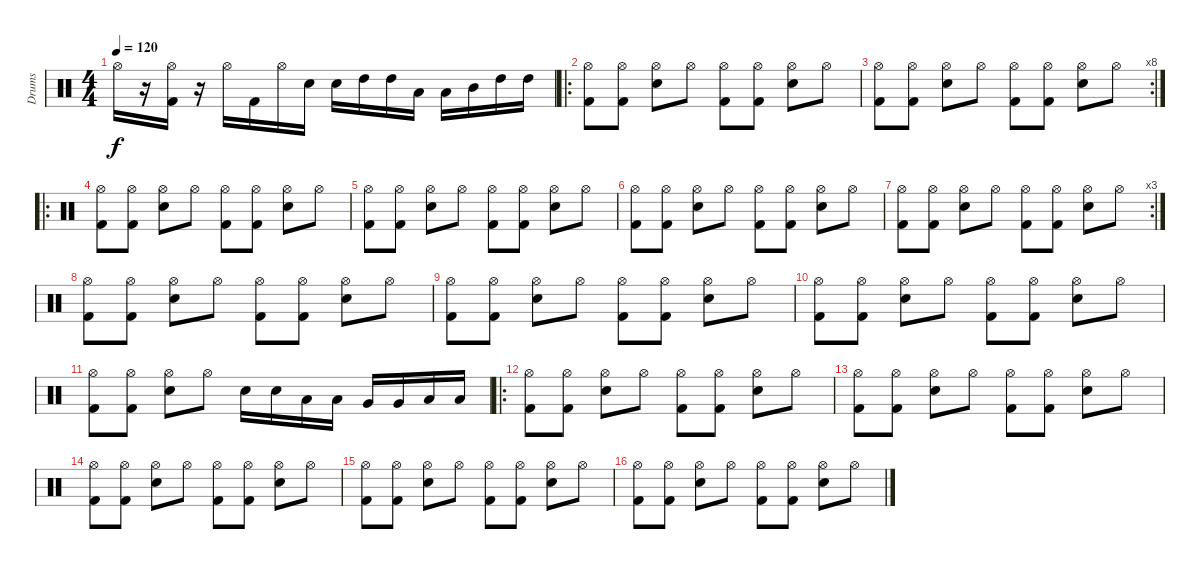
\track ("Drums" "Drums") {instrument percussion}
\staff {score}
\articulation defaults
\ts (4 4)
\tempo 120
\clef neutral
\ks c "Hi-Hat (open)".16{dy f}
r.16 ("Hi-Hat (open)" "Kick (hit) 2").16 r.16 "Hi-Hat (open)".16 "Kick (hit) 2".16 "Hi-Hat (open)".16 "Snare (hit) 2".16 "Snare (hit) 2".16 "High Tom (hit)".16 "High Tom (hit)".16 "Low Tom (hit)".16 "Low Tom (hit)".16 "Mid Tom (hit)".16 "High Tom (hit)".16 "High Tom (hit)".16 |
\ro
("Hi-Hat (open)" "Kick (hit) 2").8 ("Hi-Hat (open)" "Kick (hit) 2").8 ("Hi-Hat (open)" "Snare (hit) 2").8 "Hi-Hat (open)".8 ("Hi-Hat (open)" "Kick (hit) 2").8 ("Hi-Hat (open)" "Kick (hit) 2").8 ("Hi-Hat (open)" "Snare (hit) 2").8 "Hi-Hat (open)".8 |
\rc 8
("Hi-Hat (open)" "Kick (hit) 2").8 ("Hi-Hat (open)" "Kick (hit) 2").8 ("Hi-Hat (open)" "Snare (hit) 2").8 "Hi-Hat (open)".8 ("Hi-Hat (open)" "Kick (hit) 2").8 ("Hi-Hat (open)" "Kick (hit) 2").8 ("Hi-Hat (open)" "Snare (hit) 2").8 "Hi-Hat (open)".8 |
\ro
("Hi-Hat (open)" "Kick (hit) 2").8 ("Hi-Hat (open)" "Kick (hit) 2").8 ("Hi-Hat (open)" "Snare (hit) 2").8 "Hi-Hat (open)".8 ("Hi-Hat (open)" "Kick (hit) 2").8 ("Hi-Hat (open)" "Kick (hit) 2").8 ("Hi-Hat (open)" "Snare (hit) 2").8 "Hi-Hat (open)".8 |
("Hi-Hat (open)" "Kick (hit) 2").8 ("Hi-Hat (open)" "Kick (hit) 2").8 ("Hi-Hat (open)" "Snare (hit) 2").8 "Hi-Hat (open)".8 ("Hi-Hat (open)" "Kick (hit) 2").8 ("Hi-Hat (open)" "Kick (hit) 2").8 ("Hi-Hat (open)" "Snare (hit) 2").8 "Hi-Hat (open)".8 |
("Hi-Hat (open)" "Kick (hit) 2").8 ("Hi-Hat (open)" "Kick (hit) 2").8 ("Hi-Hat (open)" "Snare (hit) 2").8 "Hi-Hat (open)".8 ("Hi-Hat (open)" "Kick (hit) 2").8 ("Hi-Hat (open)" "Kick (hit) 2").8 ("Hi-Hat (open)" "Snare (hit) 2").8 "Hi-Hat (open)".8 |
\rc 3
("Hi-Hat (open)" "Kick (hit) 2").8 ("Hi-Hat (open)" "Kick (hit) 2").8 ("Hi-Hat (open)" "Snare (hit) 2").8 "Hi-Hat (open)".8 ("Hi-Hat (open)" "Kick (hit) 2").8 ("Hi-Hat (open)" "Kick (hit) 2").8 ("Hi-Hat (open)" "Snare (hit) 2").8 "Hi-Hat (open)".8 |
("Hi-Hat (open)" "Kick (hit) 2").8 ("Hi-Hat (open)" "Kick (hit) 2").8 ("Hi-Hat (open)" "Snare (hit) 2").8 "Hi-Hat (open)".8 ("Hi-Hat (open)" "Kick (hit) 2").8 ("Hi-Hat (open)" "Kick (hit) 2").8 ("Hi-Hat (open)" "Snare (hit) 2").8 "Hi-Hat (open)".8 |
("Hi-Hat (open)" "Kick (hit) 2").8 ("Hi-Hat (open)" "Kick (hit) 2").8 ("Hi-Hat (open)" "Snare (hit) 2").8 "Hi-Hat (open)".8 ("Hi-Hat (open)" "Kick (hit) 2").8 ("Hi-Hat (open)" "Kick (hit) 2").8 ("Hi-Hat (open)" "Snare (hit) 2").8 "Hi-Hat (open)".8 |
("Hi-Hat (open)" "Kick (hit) 2").8 ("Hi-Hat (open)" "Kick (hit) 2").8 ("Hi-Hat (open)" "Snare (hit) 2").8 "Hi-Hat (open)".8 ("Hi-Hat (open)" "Kick (hit) 2").8 ("Hi-Hat (open)" "Kick (hit) 2").8 ("Hi-Hat (open)" "Snare (hit) 2").8 "Hi-Hat (open)".8 |
("Hi-Hat (open)" "Kick (hit) 2").8 ("Hi-Hat (open)" "Kick (hit) 2").8 ("Hi-Hat (open)" "Snare (hit) 2").8 "Hi-Hat (open)".8 "Snare (hit) 2".16 "Snare (hit) 2".16 "Low Floor Tom (hit)".16 "Low Floor Tom (hit)".16 "Very Low Tom (hit)".16 "Very Low Tom (hit)".16 "Low Tom (hit)".16 "Low Tom (hit)".16 |
\ro
("Hi-Hat (open)" "Kick (hit) 2").8 ("Hi-Hat (open)" "Kick (hit) 2").8 ("Hi-Hat (open)" "Snare (hit) 2").8 "Hi-Hat (open)".8 ("Hi-Hat (open)" "Kick (hit) 2").8 ("Hi-Hat (open)" "Kick (hit) 2").8 ("Hi-Hat (open)" "Snare (hit) 2").8 "Hi-Hat (open)".8 |
("Hi-Hat (open)" "Kick (hit) 2").8 ("Hi-Hat (open)" "Kick (hit) 2").8 ("Hi-Hat (open)" "Snare (hit) 2").8 "Hi-Hat (open)".8 ("Hi-Hat (open)" "Kick (hit) 2").8 ("Hi-Hat (open)" "Kick (hit) 2").8 ("Hi-Hat (open)" "Snare (hit) 2").8 "Hi-Hat (open)".8 |
("Hi-Hat (open)" "Kick (hit) 2").8 ("Hi-Hat (open)" "Kick (hit) 2").8 ("Hi-Hat (open)" "Snare (hit) 2").8 "Hi-Hat (open)".8 ("Hi-Hat (open)" "Kick (hit) 2").8 ("Hi-Hat (open)" "Kick (hit) 2").8 ("Hi-Hat (open)" "Snare (hit) 2").8 "Hi-Hat (open)".8 |
("Hi-Hat (open)" "Kick (hit) 2").8 ("Hi-Hat (open)" "Kick (hit) 2").8 ("Hi-Hat (open)" "Snare (hit) 2").8 "Hi-Hat (open)".8 ("Hi-Hat (open)" "Kick (hit) 2").8 ("Hi-Hat (open)" "Kick (hit) 2").8 ("Hi-Hat (open)" "Snare (hit) 2").8 "Hi-Hat (open)".8 |
("Hi-Hat (open)" "Kick (hit) 2").8 ("Hi-Hat (open)" "Kick (hit) 2").8 ("Hi-Hat (open)" "Snare (hit) 2").8 "Hi-Hat (open)".8 ("Hi-Hat (open)" "Kick (hit) 2").8 ("Hi-Hat (open)" "Kick (hit) 2").8 ("Hi-Hat (open)" "Snare (hit) 2").8 "Hi-Hat (open)".8
